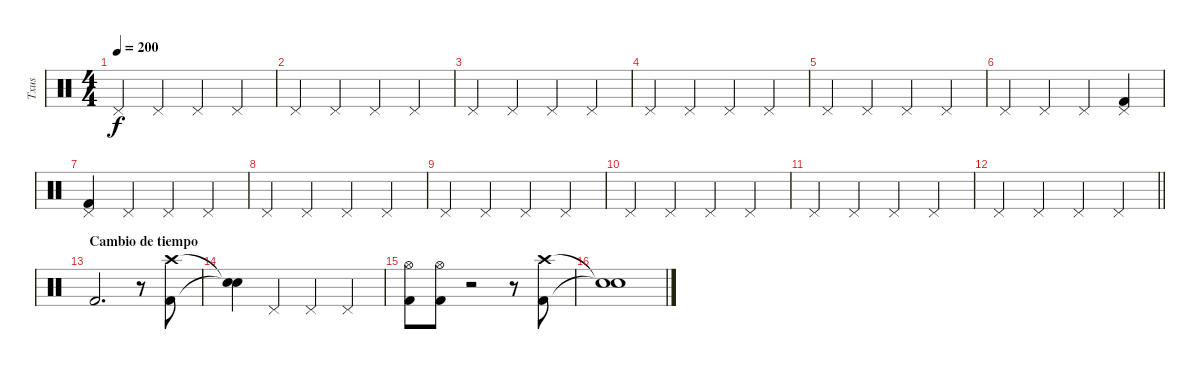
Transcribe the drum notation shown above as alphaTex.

\track ("Txus" "Txus") {instrument percussion}
\staff
\articulation defaults
\ts (4 4)
\tempo 200
\clef neutral
\ks c "Pedal Hi-Hat (hit)".4{dy f} "Pedal Hi-Hat (hit)".4 "Pedal Hi-Hat (hit)".4 "Pedal Hi-Hat (hit)".4
|
"Pedal Hi-Hat (hit)".4 "Pedal Hi-Hat (hit)".4 "Pedal Hi-Hat (hit)".4 "Pedal Hi-Hat (hit)".4 |
"Pedal Hi-Hat (hit)".4 "Pedal Hi-Hat (hit)".4 "Pedal Hi-Hat (hit)".4 "Pedal Hi-Hat (hit)".4 |
"Pedal Hi-Hat (hit)".4 "Pedal Hi-Hat (hit)".4 "Pedal Hi-Hat (hit)".4 "Pedal Hi-Hat (hit)".4 |
"Pedal Hi-Hat (hit)".4 "Pedal Hi-Hat (hit)".4 "Pedal Hi-Hat (hit)".4 "Pedal Hi-Hat (hit)".4 |
"Pedal Hi-Hat (hit)".4 "Pedal Hi-Hat (hit)".4 "Pedal Hi-Hat (hit)".4 ("Pedal Hi-Hat (hit)" "Kick (hit) 2").4 |
("Pedal Hi-Hat (hit)" "Kick (hit) 2").4 "Pedal Hi-Hat (hit)".4 "Pedal Hi-Hat (hit)".4 "Pedal Hi-Hat (hit)".4 |
"Pedal Hi-Hat (hit)".4 "Pedal Hi-Hat (hit)".4 "Pedal Hi-Hat (hit)".4 "Pedal Hi-Hat (hit)".4 |
"Pedal Hi-Hat (hit)".4 "Pedal Hi-Hat (hit)".4 "Pedal Hi-Hat (hit)".4 "Pedal Hi-Hat (hit)".4 |
"Pedal Hi-Hat (hit)".4 "Pedal Hi-Hat (hit)".4 "Pedal Hi-Hat (hit)".4 "Pedal Hi-Hat (hit)".4 |
"Pedal Hi-Hat (hit)".4 "Pedal Hi-Hat (hit)".4 "Pedal Hi-Hat (hit)".4 "Pedal Hi-Hat (hit)".4 |
\barLineRight lightlight "Pedal Hi-Hat (hit)".4 "Pedal Hi-Hat (hit)".4 "Pedal Hi-Hat (hit)".4 "Pedal Hi-Hat (hit)".4
|
\section ("" "Cambio de tiempo")
"Kick (hit) 2".2{d} r.8 ("Kick (hit) 2" "Crash high (hit)").8 |
("Snare (hit)"{t} "Snare (hit)"{t}).4 "Pedal Hi-Hat (hit)".4 "Pedal Hi-Hat (hit)".4 "Pedal Hi-Hat (hit)".4 |
("Kick (hit) 2" "Hi-Hat (open)").8 ("Kick (hit) 2" "Hi-Hat (open)").8 r.2 r.8 ("Kick (hit) 2" "Crash high (hit)").8 |
("Snare (hit)"{t} "Snare (hit)"{t}).1
